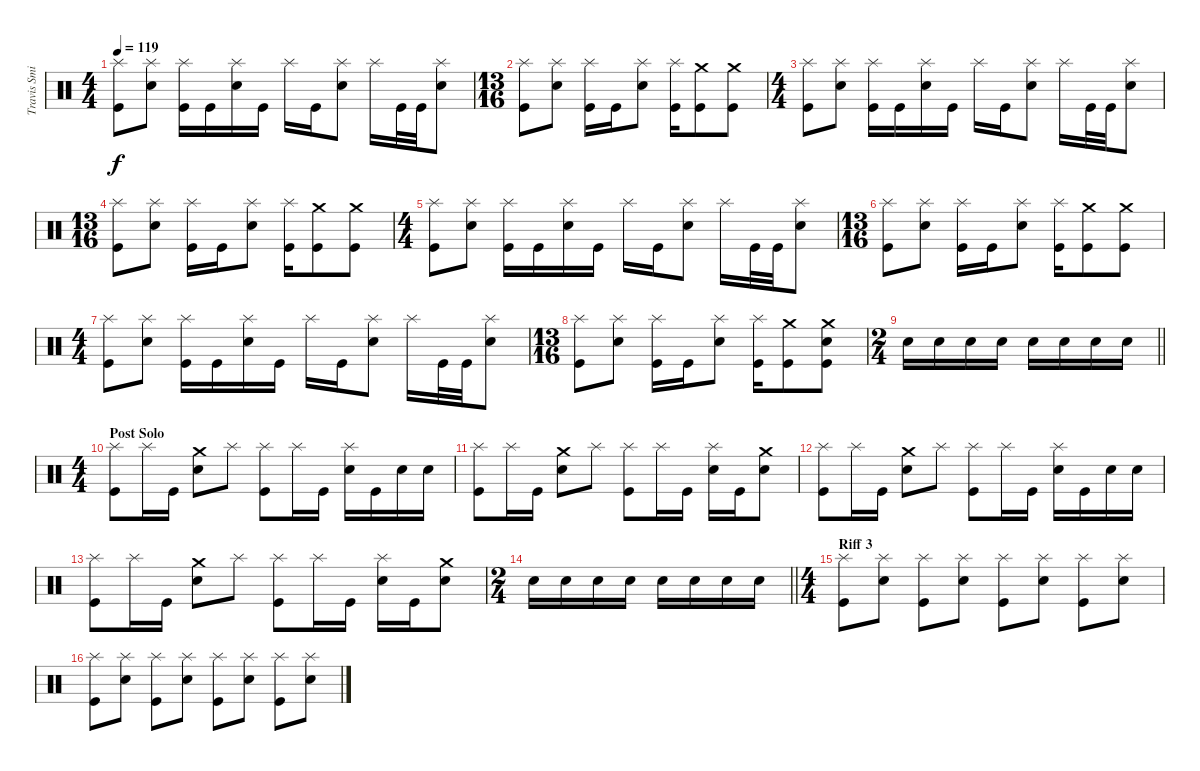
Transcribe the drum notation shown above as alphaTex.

\track ("Travis Smith (Drums)" "Travis Smi") {instrument percussion}
\staff {score}
\articulation defaults
\ts (4 4)
\tempo 119
\clef neutral
\ks c
("Splash (hit)" "Kick (hit)").8{dy f} ("Splash (hit)" "Electric Snare (hit)").8 ("Splash (hit)" "Kick (hit)").16 "Kick (hit)".16 ("Splash (hit)" "Electric Snare (hit)").16 "Kick (hit)".16 "Splash (hit)".16 "Kick (hit)".16 ("Splash (hit)" "Electric Snare (hit)").8 "Splash (hit)".16 "Kick (hit)".32 "Kick (hit)".32 ("Splash (hit)" "Electric Snare (hit)").8 |
\ts (13 16)
("Splash (hit)" "Kick (hit)").8 ("Splash (hit)" "Electric Snare (hit)").8 ("Splash (hit)" "Kick (hit)").16 "Kick (hit)".16 ("Splash (hit)" "Electric Snare (hit)").8 ("Splash (hit)" "Kick (hit)").16 ("Crash medium (hit)" "Kick (hit)").8 ("Crash medium (hit)" "Kick (hit)").8 |
\ts (4 4)
("Splash (hit)" "Kick (hit)").8 ("Splash (hit)" "Electric Snare (hit)").8 ("Splash (hit)" "Kick (hit)").16 "Kick (hit)".16 ("Splash (hit)" "Electric Snare (hit)").16 "Kick (hit)".16 "Splash (hit)".16 "Kick (hit)".16 ("Splash (hit)" "Electric Snare (hit)").8 "Splash (hit)".16 "Kick (hit)".32 "Kick (hit)".32 ("Splash (hit)" "Electric Snare (hit)").8 |
\ts (13 16)
("Splash (hit)" "Kick (hit)").8 ("Splash (hit)" "Electric Snare (hit)").8 ("Splash (hit)" "Kick (hit)").16 "Kick (hit)".16 ("Splash (hit)" "Electric Snare (hit)").8 ("Splash (hit)" "Kick (hit)").16 ("Crash medium (hit)" "Kick (hit)").8 ("Crash medium (hit)" "Kick (hit)").8 |
\ts (4 4)
("Splash (hit)" "Kick (hit)").8 ("Splash (hit)" "Electric Snare (hit)").8 ("Splash (hit)" "Kick (hit)").16 "Kick (hit)".16 ("Splash (hit)" "Electric Snare (hit)").16 "Kick (hit)".16 "Splash (hit)".16 "Kick (hit)".16 ("Splash (hit)" "Electric Snare (hit)").8 "Splash (hit)".16 "Kick (hit)".32 "Kick (hit)".32 ("Splash (hit)" "Electric Snare (hit)").8 |
\ts (13 16)
("Splash (hit)" "Kick (hit)").8 ("Splash (hit)" "Electric Snare (hit)").8 ("Splash (hit)" "Kick (hit)").16 "Kick (hit)".16 ("Splash (hit)" "Electric Snare (hit)").8 ("Splash (hit)" "Kick (hit)").16 ("Crash medium (hit)" "Kick (hit)").8 ("Crash medium (hit)" "Kick (hit)").8 |
\ts (4 4)
("Splash (hit)" "Kick (hit)").8 ("Splash (hit)" "Electric Snare (hit)").8 ("Splash (hit)" "Kick (hit)").16 "Kick (hit)".16 ("Splash (hit)" "Electric Snare (hit)").16 "Kick (hit)".16 "Splash (hit)".16 "Kick (hit)".16 ("Splash (hit)" "Electric Snare (hit)").8 "Splash (hit)".16 "Kick (hit)".32 "Kick (hit)".32 ("Splash (hit)" "Electric Snare (hit)").8 |
\ts (13 16)
("Splash (hit)" "Kick (hit)").8 ("Splash (hit)" "Electric Snare (hit)").8 ("Splash (hit)" "Kick (hit)").16 "Kick (hit)".16 ("Splash (hit)" "Electric Snare (hit)").8 ("Splash (hit)" "Kick (hit)").16 ("Crash medium (hit)" "Kick (hit)").8 ("Crash medium (hit)" "Kick (hit)" "Electric Snare (hit)").8 |
\ts (2 4)
\barLineRight lightlight "Electric Snare (hit)".16 "Electric Snare (hit)".16 "Electric Snare (hit)".16 "Electric Snare (hit)".16 "Electric Snare (hit)".16 "Electric Snare (hit)".16 "Electric Snare (hit)".16 "Electric Snare (hit)".16
|
\ts (4 4)
\section ("" "Post Solo")
("Splash (hit)" "Kick (hit)").8 "Splash (hit)".16 "Kick (hit)".16 ("Crash medium (hit)" "Electric Snare (hit)").8 "Splash (hit)".8 ("Splash (hit)" "Kick (hit)").8 "Splash (hit)".16 "Kick (hit)".16 ("Splash (hit)" "Electric Snare (hit)").16 "Kick (hit)".16 "Electric Snare (hit)".16 "Electric Snare (hit)".16 |
("Splash (hit)" "Kick (hit)").8 "Splash (hit)".16 "Kick (hit)".16 ("Crash medium (hit)" "Electric Snare (hit)").8 "Splash (hit)".8 ("Splash (hit)" "Kick (hit)").8 "Splash (hit)".16 "Kick (hit)".16 ("Splash (hit)" "Electric Snare (hit)").16 "Kick (hit)".16 ("Crash medium (hit)" "Electric Snare (hit)").8 |
("Splash (hit)" "Kick (hit)").8 "Splash (hit)".16 "Kick (hit)".16 ("Crash medium (hit)" "Electric Snare (hit)").8 "Splash (hit)".8 ("Splash (hit)" "Kick (hit)").8 "Splash (hit)".16 "Kick (hit)".16 ("Splash (hit)" "Electric Snare (hit)").16 "Kick (hit)".16 "Electric Snare (hit)".16 "Electric Snare (hit)".16 |
("Splash (hit)" "Kick (hit)").8 "Splash (hit)".16 "Kick (hit)".16 ("Crash medium (hit)" "Electric Snare (hit)").8 "Splash (hit)".8 ("Splash (hit)" "Kick (hit)").8 "Splash (hit)".16 "Kick (hit)".16 ("Splash (hit)" "Electric Snare (hit)").16 "Kick (hit)".16 ("Crash medium (hit)" "Electric Snare (hit)").8 |
\ts (2 4)
\barLineRight lightlight "Electric Snare (hit)".16 "Electric Snare (hit)".16 "Electric Snare (hit)".16 "Electric Snare (hit)".16 "Electric Snare (hit)".16 "Electric Snare (hit)".16 "Electric Snare (hit)".16 "Electric Snare (hit)".16
|
\ts (4 4)
\section ("" "Riff 3")
("Splash (hit)" "Kick (hit)").8 ("Splash (hit)" "Electric Snare (hit)").8 ("Splash (hit)" "Kick (hit)").8 ("Splash (hit)" "Electric Snare (hit)").8 ("Splash (hit)" "Kick (hit)").8 ("Splash (hit)" "Electric Snare (hit)").8 ("Splash (hit)" "Kick (hit)").8 ("Splash (hit)" "Electric Snare (hit)").8 |
("Splash (hit)" "Kick (hit)").8 ("Splash (hit)" "Electric Snare (hit)").8 ("Splash (hit)" "Kick (hit)").8 ("Splash (hit)" "Electric Snare (hit)").8 ("Splash (hit)" "Kick (hit)").8 ("Splash (hit)" "Electric Snare (hit)").8 ("Splash (hit)" "Kick (hit)").8 ("Splash (hit)" "Electric Snare (hit)").8
